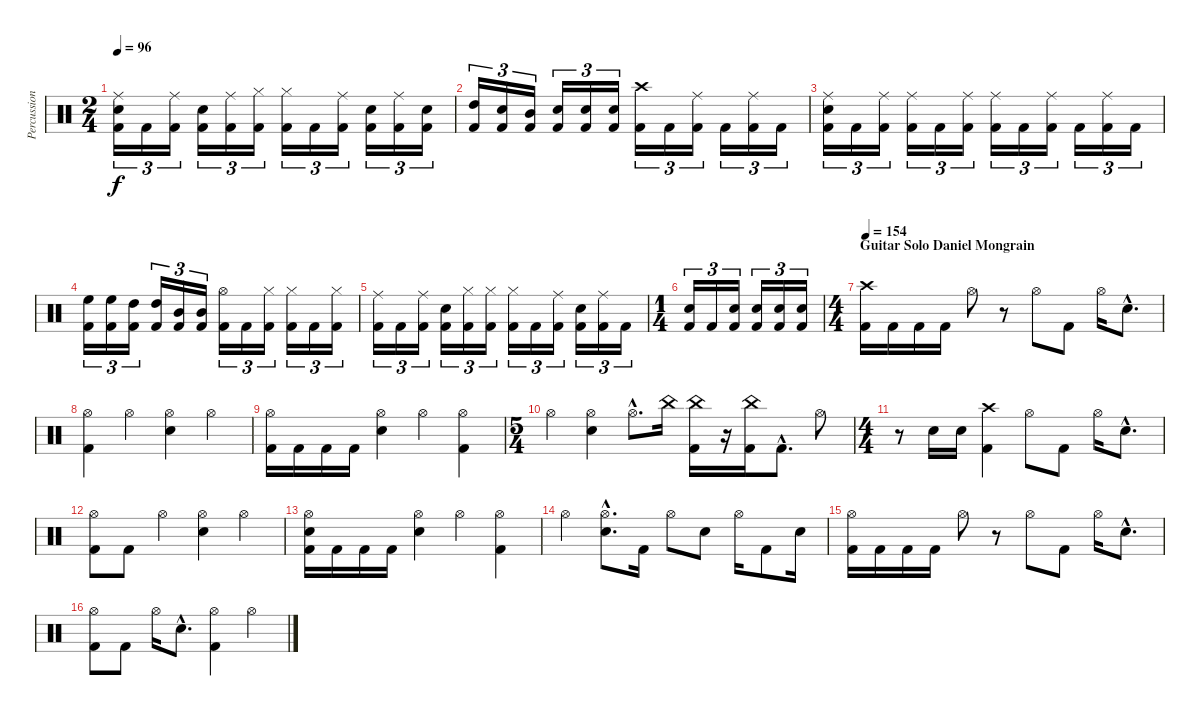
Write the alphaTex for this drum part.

\track ("Percussion" "Percussion") {instrument percussion}
\staff {score}
\articulation defaults
\ts (2 4)
\tempo 96
\clef neutral
\ks c
("Ride (middle)" "Electric Snare (hit)" "Kick (hit) 2").16{tu (3 2) dy f} "Kick (hit) 2".16{tu (3 2)} ("Ride (middle)" "Kick (hit) 2").16{tu (3 2)} ("Electric Snare (hit)" "Kick (hit) 2").16{tu (3 2)} ("Ride (middle)" "Kick (hit) 2").16{tu (3 2)} ("Hi-Hat (closed)" "Kick (hit) 2").16{tu (3 2)} ("Hi-Hat (closed)" "Kick (hit) 2").16{tu (3 2)} "Kick (hit) 2".16{tu (3 2)} ("Ride (middle)" "Kick (hit) 2").16{tu (3 2)} ("Electric Snare (hit)" "Kick (hit) 2").16{tu (3 2)} ("Ride (middle)" "Kick (hit) 2").16{tu (3 2)} ("Electric Snare (hit)" "Kick (hit) 2").16{tu (3 2)} |
("High Tom (hit)" "Kick (hit) 2").16{tu (3 2)} ("Electric Snare (hit)" "Kick (hit) 2").16{tu (3 2)} ("Mid Tom (hit)" "Kick (hit) 2").16{tu (3 2)} ("Electric Snare (hit)" "Kick (hit) 2").16{tu (3 2)} ("Electric Snare (hit)" "Kick (hit) 2").16{tu (3 2)} ("Electric Snare (hit)" "Kick (hit) 2").16{tu (3 2)} ("Crash high (hit)" "Kick (hit) 2").16{tu (3 2)} "Kick (hit) 2".16{tu (3 2)} ("Ride (middle)" "Kick (hit) 2").16{tu (3 2)} "Kick (hit) 2".16{tu (3 2)} ("Ride (middle)" "Kick (hit) 2").16{tu (3 2)} "Kick (hit) 2".16{tu (3 2)} |
("Ride (middle)" "Electric Snare (hit)" "Kick (hit) 2").16{tu (3 2)} "Kick (hit) 2".16{tu (3 2)} ("Ride (middle)" "Kick (hit) 2").16{tu (3 2)} ("Ride (middle)" "Kick (hit) 2").16{tu (3 2)} "Kick (hit) 2".16{tu (3 2)} ("Ride (middle)" "Kick (hit) 2").16{tu (3 2)} ("Ride (middle)" "Kick (hit) 2").16{tu (3 2)} "Kick (hit) 2".16{tu (3 2)} ("Ride (middle)" "Kick (hit) 2").16{tu (3 2)} "Kick (hit) 2".16{tu (3 2)} ("Ride (middle)" "Kick (hit) 2").16{tu (3 2)} "Kick (hit) 2".16{tu (3 2)} |
("High Floor Tom (hit)" "Kick (hit) 2").16{tu (3 2)} ("High Floor Tom (hit)" "Kick (hit) 2").16{tu (3 2)} ("High Tom (hit)" "Kick (hit) 2").16{tu (3 2)} ("High Tom (hit)" "Kick (hit) 2").16{tu (3 2)} ("Mid Tom (hit)" "Kick (hit) 2").16{tu (3 2)} ("Mid Tom (hit)" "Kick (hit) 2").16{tu (3 2)} ("Hi-Hat (open)" "Kick (hit) 2").16{tu (3 2)} "Kick (hit) 2".16{tu (3 2)} ("Hi-Hat (closed)" "Kick (hit) 2").16{tu (3 2)} ("Hi-Hat (closed)" "Kick (hit) 2").16{tu (3 2)} "Kick (hit) 2".16{tu (3 2)} ("Hi-Hat (closed)" "Kick (hit) 2").16{tu (3 2)} |
("Ride (middle)" "Kick (hit) 2").16{tu (3 2)} "Kick (hit) 2".16{tu (3 2)} ("Ride (middle)" "Kick (hit) 2").16{tu (3 2)} ("Electric Snare (hit)" "Kick (hit) 2").16{tu (3 2)} ("Hi-Hat (closed)" "Kick (hit) 2").16{tu (3 2)} ("Hi-Hat (closed)" "Kick (hit) 2").16{tu (3 2)} ("Hi-Hat (closed)" "Kick (hit) 2").16{tu (3 2)} "Kick (hit) 2".16{tu (3 2)} ("Ride (middle)" "Kick (hit) 2").16{tu (3 2)} ("Electric Snare (hit)" "Kick (hit) 2").16{tu (3 2)} ("Ride (middle)" "Kick (hit) 2").16{tu (3 2)} "Kick (hit) 2".16{tu (3 2)} |
\ts (1 4)
("Electric Snare (hit)" "Kick (hit) 2").16{tu (3 2)} "Kick (hit) 2".16{tu (3 2)} ("Electric Snare (hit)" "Kick (hit) 2").16{tu (3 2)} ("Electric Snare (hit)" "Kick (hit) 2").16{tu (3 2)} ("Electric Snare (hit)" "Kick (hit) 2").16{tu (3 2)} ("Electric Snare (hit)" "Kick (hit) 2").16{tu (3 2)} |
\ts (4 4)
\section ("" "Guitar Solo Daniel Mongrain")
\tempo 154
("Crash high (hit)" "Kick (hit) 2").16 "Kick (hit) 2".16 "Kick (hit) 2".16 "Kick (hit) 2".16 "Hi-Hat (open)".8 r.8 "Hi-Hat (open)".8 "Kick (hit) 2".8 "Hi-Hat (open)".16 "Electric Snare (hit)"{hac}.8{d} |
("Hi-Hat (open)" "Kick (hit) 2").4 "Hi-Hat (open)".4 ("Hi-Hat (open)" "Electric Snare (hit)").4 "Hi-Hat (open)".4 |
("Hi-Hat (open)" "Kick (hit) 2").16 "Kick (hit) 2".16 "Kick (hit) 2".16 "Kick (hit) 2".16 ("Hi-Hat (open)" "Electric Snare (hit)").4 "Hi-Hat (open)".4 ("Hi-Hat (open)" "Kick (hit) 2").4 |
\ts (5 4)
"Hi-Hat (open)".4 ("Hi-Hat (open)" "Electric Snare (hit)").4 "Hi-Hat (open)"{hac}.8{d} "China (hit)".16 ("China (hit)" "Kick (hit) 2").16 r.16 ("China (hit)" "Kick (hit) 2").16 "Kick (hit) 2"{hac}.8{d} "Hi-Hat (open)".8 |
\ts (4 4)
r.8 "Electric Snare (hit)".16 "Electric Snare (hit)".16 ("Crash high (hit)" "Kick (hit) 2").4 "Hi-Hat (open)".8 "Kick (hit) 2".8 "Hi-Hat (open)".16 "Electric Snare (hit)"{hac}.8{d} |
("Hi-Hat (open)" "Kick (hit) 2").8 "Kick (hit) 2".8 "Hi-Hat (open)".4 ("Hi-Hat (open)" "Electric Snare (hit)").4 "Hi-Hat (open)".4 |
("Hi-Hat (open)" "Electric Snare (hit)" "Kick (hit) 2").16 "Kick (hit) 2".16 "Kick (hit) 2".16 "Kick (hit) 2".16 ("Hi-Hat (open)" "Electric Snare (hit)").4 "Hi-Hat (open)".4 ("Hi-Hat (open)" "Kick (hit) 2").4 |
"Hi-Hat (open)".4 ("Hi-Hat (open)"{hac} "Electric Snare (hit)"{hac}).8{d} "Kick (hit) 2".16 "Hi-Hat (open)".8 "Electric Snare (hit)".8 "Hi-Hat (open)".16 "Kick (hit) 2".8 "Electric Snare (hit)".16 |
("Hi-Hat (open)" "Kick (hit) 2").16 "Kick (hit) 2".16 "Kick (hit) 2".16 "Kick (hit) 2".16 "Hi-Hat (open)".8 r.8 "Hi-Hat (open)".8 "Kick (hit) 2".8 "Hi-Hat (open)".16 "Electric Snare (hit)"{hac}.8{d} |
("Hi-Hat (open)" "Kick (hit) 2").8 "Kick (hit) 2".8 "Hi-Hat (open)".16 "Electric Snare (hit)"{hac}.8{d} ("Hi-Hat (open)" "Kick (hit) 2").4 "Hi-Hat (open)".4
